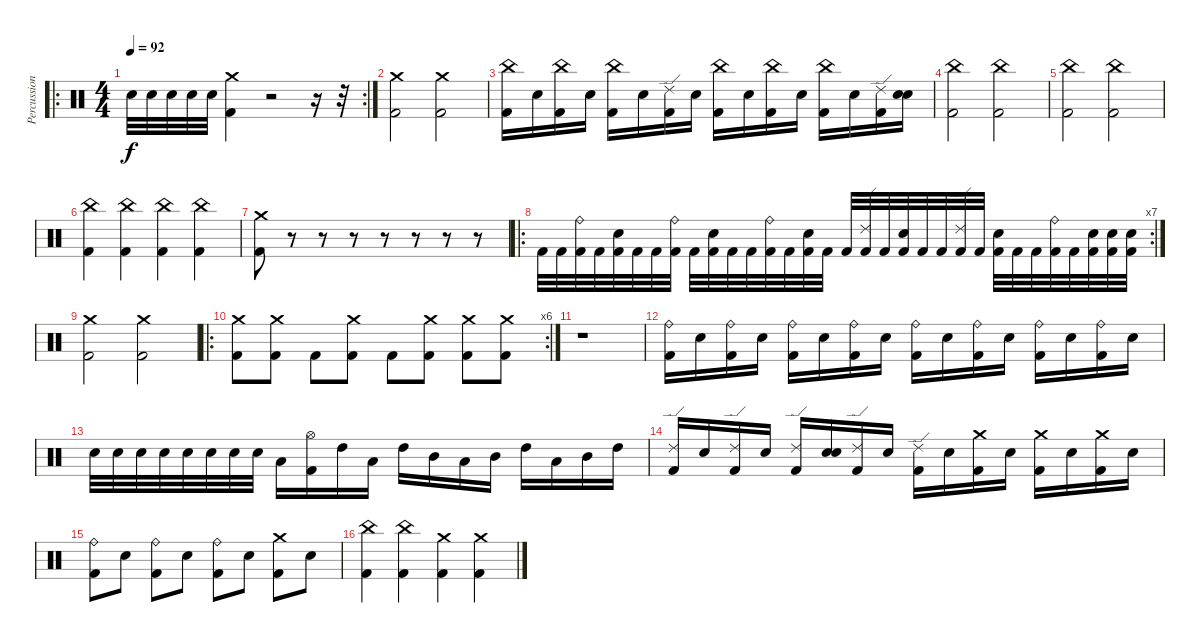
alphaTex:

\track ("Percussion" "Percussion") {instrument percussion}
\staff {score}
\articulation defaults
\ro
\rc 2
\ts (4 4)
\tempo 92
\clef neutral
\ks c "Snare (hit) 2".32{dy f} "Snare (hit) 2".32 "Snare (hit) 2".32 "Snare (hit) 2".32 "Snare (hit) 2".32
("Kick (hit) 2" "Crash medium (hit)").4 r.2 r.16 r.32 |
("Kick (hit) 2" "Crash medium (hit)").2 ("Kick (hit) 2" "Crash medium (hit)").2 |
("China (hit)" "Kick (hit) 2").16 "Snare (hit) 2".16 ("China (hit)" "Kick (hit) 2").16 "Snare (hit) 2".16 ("China (hit)" "Kick (hit) 2").16 "Snare (hit) 2".16 ("Ride (edge) 2" "Kick (hit) 2").16 "Snare (hit) 2".16 ("China (hit)" "Kick (hit) 2").16 "Snare (hit) 2".16 ("China (hit)" "Kick (hit) 2").16 "Snare (hit) 2".16 ("China (hit)" "Kick (hit) 2").16 "Snare (hit) 2".16 ("Ride (edge) 2" "Kick (hit) 2").16 ("Snare (hit)" "Snare (hit) 2").16 |
("Kick (hit) 2" "China (hit)").2 ("Kick (hit) 2" "China (hit)").2 |
("Kick (hit) 2" "China (hit)").2 ("China (hit)" "Kick (hit) 2").2 |
("China (hit)" "Kick (hit) 2").4 ("China (hit)" "Kick (hit) 2").4 ("China (hit)" "Kick (hit) 2").4 ("China (hit)" "Kick (hit) 2").4 |
("Crash medium (hit)" "Kick (hit) 2").8 r.8 r.8 r.8 r.8 r.8 r.8 r.8 |
\ro
\rc 7 "Kick (hit) 2".32 "Kick (hit) 2".32
("Ride (bell)" "Kick (hit) 2").32 "Kick (hit) 2".32 ("Snare (hit) 2" "Kick (hit) 2").32 "Kick (hit) 2".32 "Kick (hit) 2".32 ("Ride (bell)" "Kick (hit) 2").32 "Kick (hit) 2".32 ("Snare (hit) 2" "Kick (hit) 2").32 "Kick (hit) 2".32 "Kick (hit) 2".32 ("Ride (bell)" "Kick (hit) 2").32 "Kick (hit) 2".32 ("Snare (hit) 2" "Kick (hit) 2").32 "Kick (hit) 2".32 "Kick (hit) 2".32 ("Ride (edge) 2" "Kick (hit) 2").32 "Kick (hit) 2".32 ("Snare (hit) 2" "Kick (hit) 2").32 "Kick (hit) 2".32 "Kick (hit) 2".32 ("Ride (edge) 2" "Kick (hit) 2").32 "Kick (hit) 2".32 ("Snare (hit) 2" "Kick (hit) 2").32 "Kick (hit) 2".32 "Kick (hit) 2".32 ("Ride (bell)" "Kick (hit) 2").32 "Kick (hit) 2".32 ("Snare (hit) 2" "Kick (hit) 2").32 ("Snare (hit) 2" "Kick (hit) 2").32 ("Snare (hit) 2" "Kick (hit) 2").32 |
("Kick (hit) 2" "Crash medium (hit)").2 ("Kick (hit) 2" "Crash medium (hit)").2 |
\ro
\rc 6
("Crash medium (hit)" "Kick (hit) 2").8 ("Crash medium (hit)" "Kick (hit) 2").8 "Kick (hit) 2".8 ("Crash medium (hit)" "Kick (hit) 2").8 "Kick (hit) 2".8 ("Crash medium (hit)" "Kick (hit) 2").8 ("Crash medium (hit)" "Kick (hit) 2").8 ("Crash medium (hit)" "Kick (hit) 2").8 |
r.1 |
("Ride (bell)" "Kick (hit) 2").16 "Snare (hit) 2".16 ("Ride (bell)" "Kick (hit) 2").16 "Snare (hit) 2".16 ("Ride (bell)" "Kick (hit) 2").16 "Snare (hit) 2".16 ("Ride (bell)" "Kick (hit) 2").16 "Snare (hit) 2".16 ("Ride (bell)" "Kick (hit) 2").16 "Snare (hit) 2".16 ("Ride (bell)" "Kick (hit) 2").16 "Snare (hit) 2".16 ("Ride (bell)" "Kick (hit) 2").16 "Snare (hit) 2".16 ("Ride (bell)" "Kick (hit) 2").16 "Snare (hit) 2".16 |
"Snare (hit) 2".32 "Snare (hit) 2".32 "Snare (hit) 2".32 "Snare (hit) 2".32 "Snare (hit) 2".32 "Snare (hit) 2".32 "Snare (hit) 2".32 "Snare (hit) 2".32 "Low Tom (hit)".16 ("Hi-Hat (open)" "Kick (hit) 2").16 "High Tom (hit)".16 "Low Tom (hit)".16 "High Tom (hit)".16 "Mid Tom (hit)".16 "Low Tom (hit)".16 "Mid Tom (hit)".16 "High Tom (hit)".16 "Low Tom (hit)".16 "Mid Tom (hit)".16 "High Tom (hit)".16 |
("Ride (edge) 2" "Kick (hit) 2").16 "Snare (hit) 2".16 ("Ride (edge) 2" "Kick (hit) 2").16 "Snare (hit) 2".16 ("Ride (edge) 2" "Kick (hit) 2").16 ("Snare (hit)" "Snare (hit) 2").16 ("Ride (edge) 2" "Kick (hit) 2").16 "Snare (hit) 2".16 ("Ride (edge) 2" "Kick (hit) 2").16 "Snare (hit) 2".16 ("Crash medium (hit)" "Kick (hit) 2").16 "Snare (hit) 2".16 ("Crash medium (hit)" "Kick (hit) 2").16 "Snare (hit) 2".16 ("Crash medium (hit)" "Kick (hit) 2").16 "Snare (hit) 2".16 |
("Ride (bell)" "Kick (hit) 2").8 "Snare (hit) 2".8 ("Ride (bell)" "Kick (hit) 2").8 "Snare (hit) 2".8 ("Ride (bell)" "Kick (hit) 2").8 "Snare (hit) 2".8 ("Crash medium (hit)" "Kick (hit) 2").8 "Snare (hit) 2".8 |
("China (hit)" "Kick (hit) 2").4 ("China (hit)" "Kick (hit) 2").4 ("Crash medium (hit)" "Kick (hit) 2").4 ("Crash medium (hit)" "Kick (hit) 2").4
